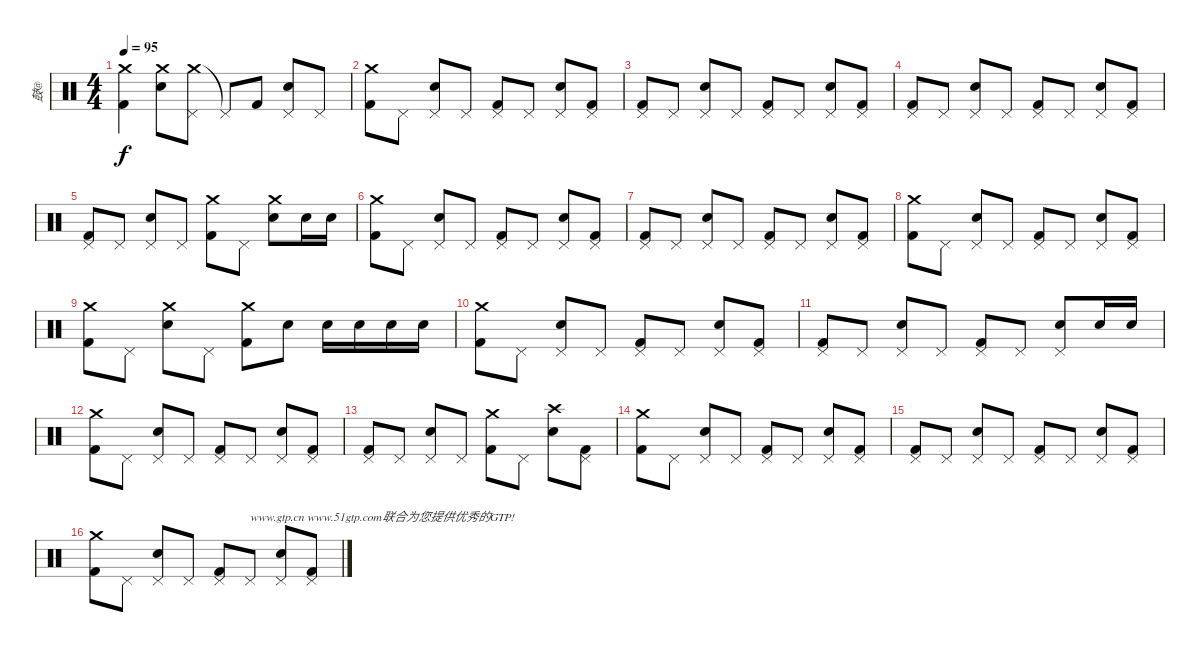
\track ("鼓@" "鼓@") {instrument percussion}
\staff {score}
\articulation defaults
\ts (4 4)
\tempo 95
\clef neutral
\ks c
("Crash medium (hit)" "Kick (hit) 2").4{dy f} ("Crash medium (hit)" "Electric Snare (hit)").8 ("Crash medium (hit)" "Pedal Hi-Hat (hit)").8 "Pedal Hi-Hat (hit)"{t}.8 "Kick (hit) 2".8 ("Pedal Hi-Hat (hit)" "Electric Snare (hit)").8 "Pedal Hi-Hat (hit)".8 |
("Crash medium (hit)" "Kick (hit) 2").8 "Pedal Hi-Hat (hit)".8 ("Pedal Hi-Hat (hit)" "Electric Snare (hit)").8 "Pedal Hi-Hat (hit)".8 ("Pedal Hi-Hat (hit)" "Kick (hit) 2").8 "Pedal Hi-Hat (hit)".8 ("Pedal Hi-Hat (hit)" "Electric Snare (hit)").8 ("Pedal Hi-Hat (hit)" "Kick (hit) 2").8 |
("Pedal Hi-Hat (hit)" "Kick (hit) 2").8 "Pedal Hi-Hat (hit)".8 ("Pedal Hi-Hat (hit)" "Electric Snare (hit)").8 "Pedal Hi-Hat (hit)".8 ("Pedal Hi-Hat (hit)" "Kick (hit) 2").8 "Pedal Hi-Hat (hit)".8 ("Pedal Hi-Hat (hit)" "Electric Snare (hit)").8 ("Pedal Hi-Hat (hit)" "Kick (hit) 2").8 |
("Pedal Hi-Hat (hit)" "Kick (hit) 2").8 "Pedal Hi-Hat (hit)".8 ("Pedal Hi-Hat (hit)" "Electric Snare (hit)").8 "Pedal Hi-Hat (hit)".8 ("Pedal Hi-Hat (hit)" "Kick (hit) 2").8 "Pedal Hi-Hat (hit)".8 ("Pedal Hi-Hat (hit)" "Electric Snare (hit)").8 ("Pedal Hi-Hat (hit)" "Kick (hit) 2").8 |
("Pedal Hi-Hat (hit)" "Kick (hit) 2").8 "Pedal Hi-Hat (hit)".8 ("Pedal Hi-Hat (hit)" "Electric Snare (hit)").8 "Pedal Hi-Hat (hit)".8 ("Crash medium (hit)" "Kick (hit) 2").8 "Pedal Hi-Hat (hit)".8 ("Crash medium (hit)" "Electric Snare (hit)").8 "Electric Snare (hit)".16 "Electric Snare (hit)".16 |
("Crash medium (hit)" "Kick (hit) 2").8 "Pedal Hi-Hat (hit)".8 ("Pedal Hi-Hat (hit)" "Electric Snare (hit)").8 "Pedal Hi-Hat (hit)".8 ("Pedal Hi-Hat (hit)" "Kick (hit) 2").8 "Pedal Hi-Hat (hit)".8 ("Pedal Hi-Hat (hit)" "Electric Snare (hit)").8 ("Pedal Hi-Hat (hit)" "Kick (hit) 2").8 |
("Pedal Hi-Hat (hit)" "Kick (hit) 2").8 "Pedal Hi-Hat (hit)".8 ("Pedal Hi-Hat (hit)" "Electric Snare (hit)").8 "Pedal Hi-Hat (hit)".8 ("Pedal Hi-Hat (hit)" "Kick (hit) 2").8 "Pedal Hi-Hat (hit)".8 ("Pedal Hi-Hat (hit)" "Electric Snare (hit)").8 ("Pedal Hi-Hat (hit)" "Kick (hit) 2").8 |
("Crash medium (hit)" "Kick (hit) 2").8 "Pedal Hi-Hat (hit)".8 ("Pedal Hi-Hat (hit)" "Electric Snare (hit)").8 "Pedal Hi-Hat (hit)".8 ("Pedal Hi-Hat (hit)" "Kick (hit) 2").8 "Pedal Hi-Hat (hit)".8 ("Pedal Hi-Hat (hit)" "Electric Snare (hit)").8 ("Pedal Hi-Hat (hit)" "Kick (hit) 2").8 |
("Crash medium (hit)" "Kick (hit) 2").8 "Pedal Hi-Hat (hit)".8 ("Crash medium (hit)" "Electric Snare (hit)").8 "Pedal Hi-Hat (hit)".8 ("Crash medium (hit)" "Kick (hit) 2").8 "Electric Snare (hit)".8 "Electric Snare (hit)".16 "Electric Snare (hit)".16 "Electric Snare (hit)".16 "Electric Snare (hit)".16 |
("Crash medium (hit)" "Kick (hit) 2").8 "Pedal Hi-Hat (hit)".8 ("Pedal Hi-Hat (hit)" "Electric Snare (hit)").8 "Pedal Hi-Hat (hit)".8 ("Pedal Hi-Hat (hit)" "Kick (hit) 2").8 "Pedal Hi-Hat (hit)".8 ("Pedal Hi-Hat (hit)" "Electric Snare (hit)").8 ("Pedal Hi-Hat (hit)" "Kick (hit) 2").8 |
("Pedal Hi-Hat (hit)" "Kick (hit) 2").8 "Pedal Hi-Hat (hit)".8 ("Pedal Hi-Hat (hit)" "Electric Snare (hit)").8 "Pedal Hi-Hat (hit)".8 ("Pedal Hi-Hat (hit)" "Kick (hit) 2").8 "Pedal Hi-Hat (hit)".8 ("Pedal Hi-Hat (hit)" "Electric Snare (hit)").8 "Electric Snare (hit)".16 "Electric Snare (hit)".16 |
("Crash medium (hit)" "Kick (hit) 2").8 "Pedal Hi-Hat (hit)".8 ("Pedal Hi-Hat (hit)" "Electric Snare (hit)").8 "Pedal Hi-Hat (hit)".8 ("Pedal Hi-Hat (hit)" "Kick (hit) 2").8 "Pedal Hi-Hat (hit)".8 ("Pedal Hi-Hat (hit)" "Electric Snare (hit)").8 ("Pedal Hi-Hat (hit)" "Kick (hit) 2").8 |
("Pedal Hi-Hat (hit)" "Kick (hit) 2").8 "Pedal Hi-Hat (hit)".8 ("Pedal Hi-Hat (hit)" "Electric Snare (hit)").8 "Pedal Hi-Hat (hit)".8 ("Crash medium (hit)" "Kick (hit) 2").8 "Pedal Hi-Hat (hit)".8 ("Crash high (hit)" "Electric Snare (hit)").8 ("Pedal Hi-Hat (hit)" "Kick (hit) 2").8 |
("Crash medium (hit)" "Kick (hit) 2").8 "Pedal Hi-Hat (hit)".8 ("Pedal Hi-Hat (hit)" "Electric Snare (hit)").8 "Pedal Hi-Hat (hit)".8 ("Pedal Hi-Hat (hit)" "Kick (hit) 2").8 "Pedal Hi-Hat (hit)".8 ("Pedal Hi-Hat (hit)" "Electric Snare (hit)").8 ("Pedal Hi-Hat (hit)" "Kick (hit) 2").8 |
("Pedal Hi-Hat (hit)" "Kick (hit) 2").8 "Pedal Hi-Hat (hit)".8 ("Pedal Hi-Hat (hit)" "Electric Snare (hit)").8 "Pedal Hi-Hat (hit)".8 ("Pedal Hi-Hat (hit)" "Kick (hit) 2").8 "Pedal Hi-Hat (hit)".8 ("Pedal Hi-Hat (hit)" "Electric Snare (hit)").8 ("Pedal Hi-Hat (hit)" "Kick (hit) 2").8 |
("Crash medium (hit)" "Kick (hit) 2").8 "Pedal Hi-Hat (hit)".8 ("Pedal Hi-Hat (hit)" "Electric Snare (hit)").8 "Pedal Hi-Hat (hit)".8 ("Pedal Hi-Hat (hit)" "Kick (hit) 2").8 "Pedal Hi-Hat (hit)".8{txt "www.gtp.cn www.51gtp.com联合为您提供优秀的GTP!"} ("Pedal Hi-Hat (hit)" "Electric Snare (hit)").8 ("Pedal Hi-Hat (hit)" "Kick (hit) 2").8
